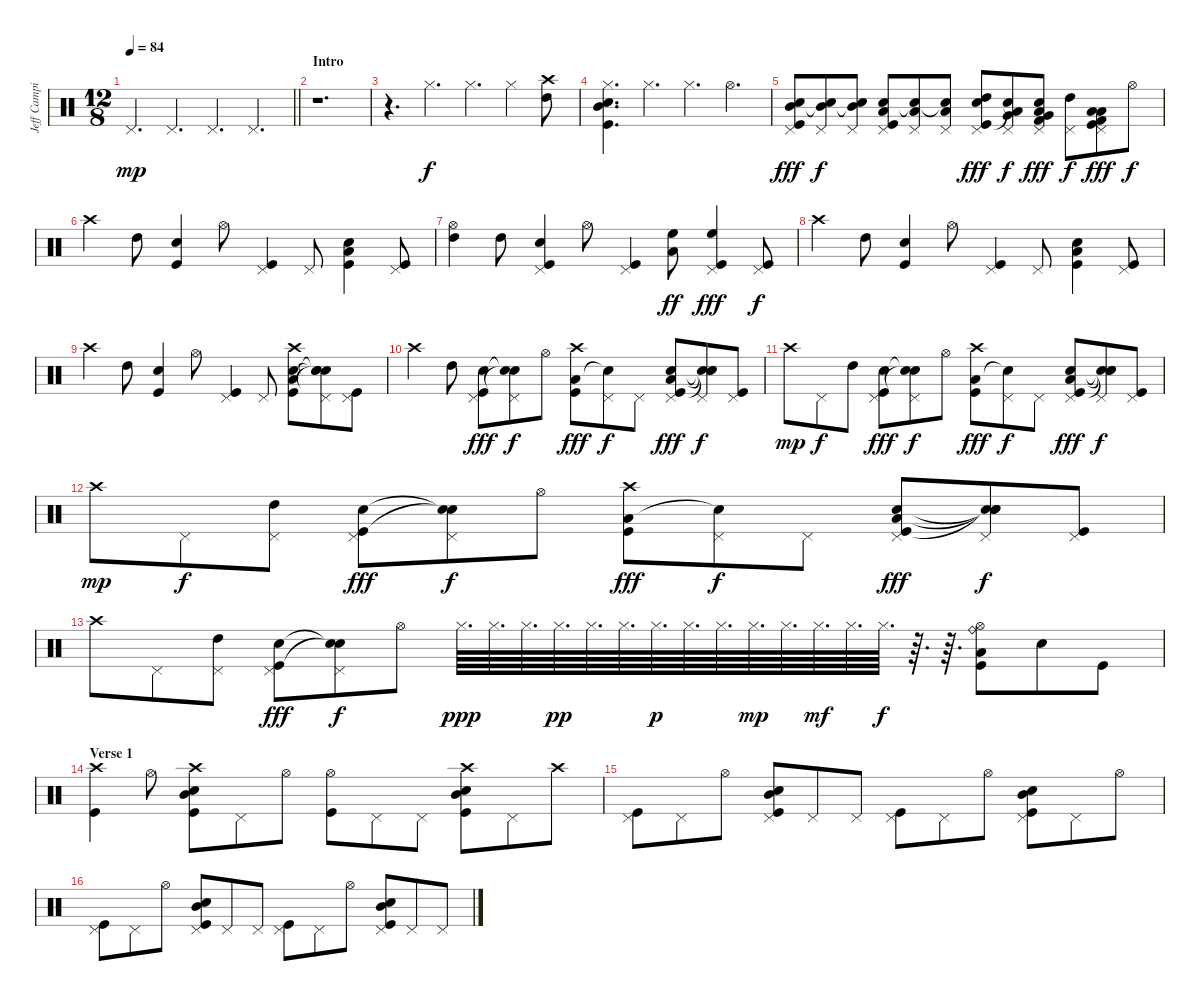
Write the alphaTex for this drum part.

\track ("Jeff Campitelli" "Jeff Campi") {instrument percussion}
\staff {score}
\articulation defaults
\ts (12 8)
\tempo 84
\clef neutral
\barLineRight lightlight
\ks c "Pedal Hi-Hat (hit)".4{d dy mp} "Pedal Hi-Hat (hit)".4{d} "Pedal Hi-Hat (hit)".4{d} "Pedal Hi-Hat (hit)".4{d}
|
\section ("" "Intro")
r.1{d volume 14} |
r.4{d} "Hi-Hat (closed)".4{d dy f} "Hi-Hat (closed)".4{d} "Hi-Hat (closed)".4 ("Crash high (hit)" "High Tom (hit)").8 |
("Hi-Hat (closed)" "Snare (hit) 2" "Mid Tom (hit)" "Kick (hit)").4{d} "Hi-Hat (closed)".4{d} "Hi-Hat (closed)".4{d} "Hi-Hat (open)".4{d} |
("Pedal Hi-Hat (hit)" "Mid Tom (hit)" "Snare (hit) 2" "Kick (hit)").8{dy fff} ("Pedal Hi-Hat (hit)" "Mid Tom (hit)" "Snare (hit)"{t}).8{dy f} ("Pedal Hi-Hat (hit)" "Mid Tom (hit)" "Snare (hit)"{t}).8 ("Pedal Hi-Hat (hit)" "Low Tom (hit)" "Snare (hit) 2" "Kick (hit)").8 ("Pedal Hi-Hat (hit)" "Low Tom (hit)" "Snare (hit)"{t}).8 ("Pedal Hi-Hat (hit)" "Low Tom (hit)" "Snare (hit)"{t}).8 ("Pedal Hi-Hat (hit)" "Snare (hit) 2" "High Tom (hit)" "Kick (hit)").8{dy fff} ("Pedal Hi-Hat (hit)" "Very Low Tom (hit)" "Low Floor Tom (hit)" "Snare (hit)"{t}).8{dy f} ("Pedal Hi-Hat (hit)" "Very Low Tom (hit)" "Snare (hit) 2" "Low Floor Tom (hit)" "Kick (hit) 2").8{dy fff} ("Pedal Hi-Hat (hit)" "High Tom (hit)").8{dy f} ("Pedal Hi-Hat (hit)" "Low Tom (hit)" "Low Floor Tom (hit)" "Kick (hit) 2" "Kick (hit)").8{dy fff} "Hi-Hat (open)".8{dy f} |
"Crash high (hit)".4 "High Tom (hit)".8 ("Snare (hit) 2" "Kick (hit)").4 "Hi-Hat (open)".8 ("Pedal Hi-Hat (hit)" "Kick (hit)").4 "Pedal Hi-Hat (hit)".8 ("Snare (hit) 2" "Low Tom (hit)" "Kick (hit)").4 ("Pedal Hi-Hat (hit)" "Kick (hit)").8 |
("Hi-Hat (open)" "High Tom (hit)").4 "High Tom (hit)".8 ("Pedal Hi-Hat (hit)" "Snare (hit) 2" "Kick (hit)").4 "Hi-Hat (open)".8 ("Pedal Hi-Hat (hit)" "Kick (hit)").4 ("High Floor Tom (hit)" "Low Tom (hit)").8{dy ff} ("Pedal Hi-Hat (hit)" "High Floor Tom (hit)" "Kick (hit)").4{dy fff} ("Pedal Hi-Hat (hit)" "Kick (hit)").8{dy f} |
"Crash high (hit)".4 "High Tom (hit)".8 ("Snare (hit) 2" "Kick (hit)").4 "Hi-Hat (open)".8 ("Pedal Hi-Hat (hit)" "Kick (hit)").4 "Pedal Hi-Hat (hit)".8 ("Snare (hit) 2" "Low Tom (hit)" "Kick (hit)").4 ("Pedal Hi-Hat (hit)" "Kick (hit)").8 |
"Crash high (hit)".4 "High Tom (hit)".8 ("Snare (hit) 2" "Kick (hit)").4 "Hi-Hat (open)".8 ("Pedal Hi-Hat (hit)" "Kick (hit)").4 "Pedal Hi-Hat (hit)".8 ("Crash high (hit)" "Snare (hit) 2" "Low Tom (hit)" "Kick (hit)").8 ("Pedal Hi-Hat (hit)" "Snare (hit)"{t} "Snare (hit)"{t} "Snare (hit)"{t}).8 ("Pedal Hi-Hat (hit)" "Kick (hit)").8 |
"Crash high (hit)".4 "High Tom (hit)".8 ("Pedal Hi-Hat (hit)" "Snare (hit) 2" "Kick (hit)").8{dy fff} ("Pedal Hi-Hat (hit)" "Snare (hit)"{t} "Snare (hit)"{t}).8{dy f} "Hi-Hat (open)".8 ("Crash high (hit)" "Low Tom (hit)" "Kick (hit)").8{dy fff} ("Pedal Hi-Hat (hit)" "Snare (hit)"{t}).8{dy f} "Pedal Hi-Hat (hit)".8 ("Pedal Hi-Hat (hit)" "Snare (hit) 2" "Low Tom (hit)" "Kick (hit)").8{dy fff} ("Pedal Hi-Hat (hit)" "Snare (hit)"{t} "Snare (hit)"{t} "Snare (hit)"{t}).8{dy f} ("Pedal Hi-Hat (hit)" "Kick (hit)").8 |
"Crash high (hit)".8{dy mp} "Pedal Hi-Hat (hit)".8{dy f} "High Tom (hit)".8 ("Pedal Hi-Hat (hit)" "Snare (hit) 2" "Kick (hit)").8{dy fff} ("Pedal Hi-Hat (hit)" "Snare (hit)"{t} "Snare (hit)"{t}).8{dy f} "Hi-Hat (open)".8 ("Crash high (hit)" "Low Tom (hit)" "Kick (hit)").8{dy fff} ("Pedal Hi-Hat (hit)" "Snare (hit)"{t}).8{dy f} "Pedal Hi-Hat (hit)".8 ("Pedal Hi-Hat (hit)" "Snare (hit) 2" "Low Tom (hit)" "Kick (hit)").8{dy fff} ("Pedal Hi-Hat (hit)" "Snare (hit)"{t} "Snare (hit)"{t} "Snare (hit)"{t}).8{dy f} ("Pedal Hi-Hat (hit)" "Kick (hit)").8 |
"Crash high (hit)".8{dy mp} "Pedal Hi-Hat (hit)".8{dy f} ("Pedal Hi-Hat (hit)" "High Tom (hit)").8 ("Pedal Hi-Hat (hit)" "Snare (hit) 2" "Kick (hit)").8{dy fff} ("Pedal Hi-Hat (hit)" "Snare (hit)"{t} "Snare (hit)"{t}).8{dy f} "Hi-Hat (open)".8 ("Crash high (hit)" "Low Tom (hit)" "Kick (hit)").8{dy fff} ("Pedal Hi-Hat (hit)" "Snare (hit)"{t}).8{dy f} "Pedal Hi-Hat (hit)".8 ("Pedal Hi-Hat (hit)" "Snare (hit) 2" "Low Tom (hit)" "Kick (hit)").8{dy fff} ("Pedal Hi-Hat (hit)" "Snare (hit)"{t} "Snare (hit)"{t} "Snare (hit)"{t}).8{dy f} ("Pedal Hi-Hat (hit)" "Kick (hit)").8 |
"Crash high (hit)".8 "Pedal Hi-Hat (hit)".8 ("Pedal Hi-Hat (hit)" "High Tom (hit)").8 ("Pedal Hi-Hat (hit)" "Snare (hit) 2" "Kick (hit)").8{dy fff} ("Pedal Hi-Hat (hit)" "Snare (hit)"{t} "Snare (hit)"{t}).8{dy f} "Hi-Hat (open)".8 "Hi-Hat (closed)".64{d dy ppp} "Hi-Hat (closed)".64{d} "Hi-Hat (closed)".64{d} "Hi-Hat (closed)".64{d dy pp} "Hi-Hat (closed)".64{d} "Hi-Hat (closed)".64{d} "Hi-Hat (closed)".64{d dy p} "Hi-Hat (closed)".64{d} "Hi-Hat (closed)".64{d} "Hi-Hat (closed)".64{d dy mp} "Hi-Hat (closed)".64{d} "Hi-Hat (closed)".64{d dy mf} "Hi-Hat (closed)".64{d} "Hi-Hat (closed)".64{d dy f} r.64{d} r.64{d} ("Hi-Hat (open)" "Ride (bell)" "Low Tom (hit)" "Kick (hit)").8 "Snare (hit) 2".8 "Kick (hit)".8 |
\section ("" "Verse 1")
("Crash high (hit)" "Kick (hit)").4 "Hi-Hat (open)".8 ("Crash high (hit)" "Snare (hit) 2" "Mid Tom (hit)" "Kick (hit)").8 "Pedal Hi-Hat (hit)".8 "Hi-Hat (open)".8 ("Hi-Hat (open)" "Kick (hit)").8 "Pedal Hi-Hat (hit)".8 "Pedal Hi-Hat (hit)".8 ("Crash high (hit)" "Snare (hit) 2" "Mid Tom (hit)" "Kick (hit)").8 "Pedal Hi-Hat (hit)".8 "Crash high (hit)".8 |
("Pedal Hi-Hat (hit)" "Kick (hit)").8 "Pedal Hi-Hat (hit)".8 "Hi-Hat (open)".8 ("Pedal Hi-Hat (hit)" "Snare (hit) 2" "Mid Tom (hit)" "Kick (hit)").8 "Pedal Hi-Hat (hit)".8 "Pedal Hi-Hat (hit)".8 ("Pedal Hi-Hat (hit)" "Kick (hit)").8 "Pedal Hi-Hat (hit)".8 "Hi-Hat (open)".8 ("Pedal Hi-Hat (hit)" "Snare (hit) 2" "Mid Tom (hit)" "Kick (hit)").8 "Pedal Hi-Hat (hit)".8 "Hi-Hat (open)".8 |
("Pedal Hi-Hat (hit)" "Kick (hit)").8 "Pedal Hi-Hat (hit)".8 "Hi-Hat (open)".8 ("Pedal Hi-Hat (hit)" "Snare (hit) 2" "Mid Tom (hit)" "Kick (hit)").8 "Pedal Hi-Hat (hit)".8 "Pedal Hi-Hat (hit)".8 ("Pedal Hi-Hat (hit)" "Kick (hit)").8 "Pedal Hi-Hat (hit)".8 "Hi-Hat (open)".8 ("Pedal Hi-Hat (hit)" "Snare (hit) 2" "Mid Tom (hit)" "Kick (hit)").8 "Pedal Hi-Hat (hit)".8 "Pedal Hi-Hat (hit)".8
